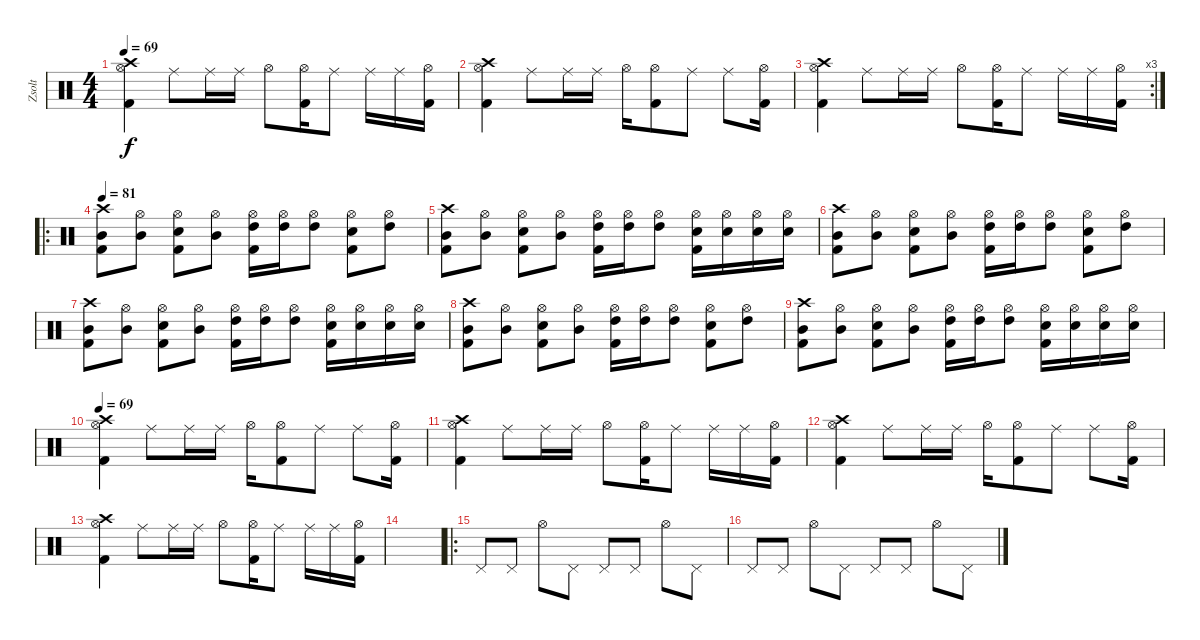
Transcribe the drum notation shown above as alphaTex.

\track ("Zsolt" "Zsolt") {instrument percussion}
\staff {score}
\articulation defaults
\ts (4 4)
\tempo 69
\clef neutral
\ks c
("Crash high (hit)" "Hi-Hat (open)" "Kick (hit) 2").4{dy f} "Ride (middle)".8 "Ride (middle)".16 "Ride (middle)".16 "Hi-Hat (open)".8 ("Hi-Hat (open)" "Kick (hit) 2").16 "Ride (middle)".8 "Ride (middle)".16 "Ride (middle)".16 ("Hi-Hat (open)" "Kick (hit) 2").16 |
("Crash high (hit)" "Hi-Hat (open)" "Kick (hit) 2").4 "Ride (middle)".8 "Ride (middle)".16 "Ride (middle)".16 "Hi-Hat (open)".16 ("Hi-Hat (open)" "Kick (hit) 2").8 "Ride (middle)".8 "Ride (middle)".8 ("Hi-Hat (open)" "Kick (hit) 2").16 |
\rc 3
("Crash high (hit)" "Hi-Hat (open)" "Kick (hit) 2").4 "Ride (middle)".8 "Ride (middle)".16 "Ride (middle)".16 "Hi-Hat (open)".8 ("Hi-Hat (open)" "Kick (hit) 2").16 "Ride (middle)".8 "Ride (middle)".16 "Ride (middle)".16 ("Hi-Hat (open)" "Kick (hit) 2").16 |
\ro
\tempo 81
("Crash high (hit)" "Mid Tom (hit)" "Kick (hit) 2").8 ("Hi-Hat (open)" "Mid Tom (hit)").8 ("Hi-Hat (open)" "Snare (hit) 2" "Kick (hit) 2").8 ("Hi-Hat (open)" "Mid Tom (hit)").8 ("Hi-Hat (open)" "High Tom (hit)" "Kick (hit) 2").16 ("Hi-Hat (open)" "High Tom (hit)").16 ("Hi-Hat (open)" "High Tom (hit)").8 ("Hi-Hat (open)" "Snare (hit) 2" "Kick (hit) 2").8 ("Hi-Hat (open)" "High Tom (hit)").8 |
("Crash high (hit)" "Mid Tom (hit)" "Kick (hit) 2").8 ("Hi-Hat (open)" "Mid Tom (hit)").8 ("Hi-Hat (open)" "Snare (hit) 2" "Kick (hit) 2").8 ("Hi-Hat (open)" "Mid Tom (hit)").8 ("Hi-Hat (open)" "High Tom (hit)" "Kick (hit) 2").16 ("Hi-Hat (open)" "High Tom (hit)").16 ("Hi-Hat (open)" "High Tom (hit)").8 ("Hi-Hat (open)" "Snare (hit) 2" "Kick (hit) 2").16 ("Hi-Hat (open)" "Snare (hit) 2").16 ("Hi-Hat (open)" "Snare (hit) 2").16 ("Hi-Hat (open)" "Snare (hit) 2").16 |
("Crash high (hit)" "Mid Tom (hit)" "Kick (hit) 2").8 ("Hi-Hat (open)" "Mid Tom (hit)").8 ("Hi-Hat (open)" "Snare (hit) 2" "Kick (hit) 2").8 ("Hi-Hat (open)" "Mid Tom (hit)").8 ("Hi-Hat (open)" "High Tom (hit)" "Kick (hit) 2").16 ("Hi-Hat (open)" "High Tom (hit)").16 ("Hi-Hat (open)" "High Tom (hit)").8 ("Hi-Hat (open)" "Snare (hit) 2" "Kick (hit) 2").8 ("Hi-Hat (open)" "High Tom (hit)").8 |
("Crash high (hit)" "Mid Tom (hit)" "Kick (hit) 2").8 ("Hi-Hat (open)" "Mid Tom (hit)").8 ("Hi-Hat (open)" "Snare (hit) 2" "Kick (hit) 2").8 ("Hi-Hat (open)" "Mid Tom (hit)").8 ("Hi-Hat (open)" "High Tom (hit)" "Kick (hit) 2").16 ("Hi-Hat (open)" "High Tom (hit)").16 ("Hi-Hat (open)" "High Tom (hit)").8 ("Hi-Hat (open)" "Snare (hit) 2" "Kick (hit) 2").16 ("Hi-Hat (open)" "Snare (hit) 2").16 ("Hi-Hat (open)" "Snare (hit) 2").16 ("Hi-Hat (open)" "Snare (hit) 2").16 |
("Crash high (hit)" "Mid Tom (hit)" "Kick (hit) 2").8 ("Hi-Hat (open)" "Mid Tom (hit)").8 ("Hi-Hat (open)" "Snare (hit) 2" "Kick (hit) 2").8 ("Hi-Hat (open)" "Mid Tom (hit)").8 ("Hi-Hat (open)" "High Tom (hit)" "Kick (hit) 2").16 ("Hi-Hat (open)" "High Tom (hit)").16 ("Hi-Hat (open)" "High Tom (hit)").8 ("Hi-Hat (open)" "Snare (hit) 2" "Kick (hit) 2").8 ("Hi-Hat (open)" "High Tom (hit)").8 |
("Crash high (hit)" "Mid Tom (hit)" "Kick (hit) 2").8 ("Hi-Hat (open)" "Mid Tom (hit)").8 ("Hi-Hat (open)" "Snare (hit) 2" "Kick (hit) 2").8 ("Hi-Hat (open)" "Mid Tom (hit)").8 ("Hi-Hat (open)" "High Tom (hit)" "Kick (hit) 2").16 ("Hi-Hat (open)" "High Tom (hit)").16 ("Hi-Hat (open)" "High Tom (hit)").8 ("Hi-Hat (open)" "Snare (hit) 2" "Kick (hit) 2").16 ("Hi-Hat (open)" "Snare (hit) 2").16 ("Hi-Hat (open)" "Snare (hit) 2").16 ("Hi-Hat (open)" "Snare (hit) 2").16 |
\tempo 69
("Crash high (hit)" "Hi-Hat (open)" "Kick (hit) 2").4 "Ride (middle)".8 "Ride (middle)".16 "Ride (middle)".16 "Hi-Hat (open)".16 ("Hi-Hat (open)" "Kick (hit) 2").8 "Ride (middle)".8 "Ride (middle)".8 ("Hi-Hat (open)" "Kick (hit) 2").16 |
("Crash high (hit)" "Hi-Hat (open)" "Kick (hit) 2").4 "Ride (middle)".8 "Ride (middle)".16 "Ride (middle)".16 "Hi-Hat (open)".8 ("Hi-Hat (open)" "Kick (hit) 2").16 "Ride (middle)".8 "Ride (middle)".16 "Ride (middle)".16 ("Hi-Hat (open)" "Kick (hit) 2").16 |
("Crash high (hit)" "Hi-Hat (open)" "Kick (hit) 2").4 "Ride (middle)".8 "Ride (middle)".16 "Ride (middle)".16 "Hi-Hat (open)".16 ("Hi-Hat (open)" "Kick (hit) 2").8 "Ride (middle)".8 "Ride (middle)".8 ("Hi-Hat (open)" "Kick (hit) 2").16 |
("Crash high (hit)" "Hi-Hat (open)" "Kick (hit) 2").4 "Ride (middle)".8 "Ride (middle)".16 "Ride (middle)".16 "Hi-Hat (open)".8 ("Hi-Hat (open)" "Kick (hit) 2").16 "Ride (middle)".8 "Ride (middle)".16 "Ride (middle)".16 ("Hi-Hat (open)" "Kick (hit) 2").16 |
|
\ro "Pedal Hi-Hat (hit)".8 "Pedal Hi-Hat (hit)".8 "Hi-Hat (open)".8 "Pedal Hi-Hat (hit)".8 "Pedal Hi-Hat (hit)".8 "Pedal Hi-Hat (hit)".8 "Hi-Hat (open)".8 "Pedal Hi-Hat (hit)".8
|
"Pedal Hi-Hat (hit)".8 "Pedal Hi-Hat (hit)".8 "Hi-Hat (open)".8 "Pedal Hi-Hat (hit)".8 "Pedal Hi-Hat (hit)".8 "Pedal Hi-Hat (hit)".8 "Hi-Hat (open)".8 "Pedal Hi-Hat (hit)".8
